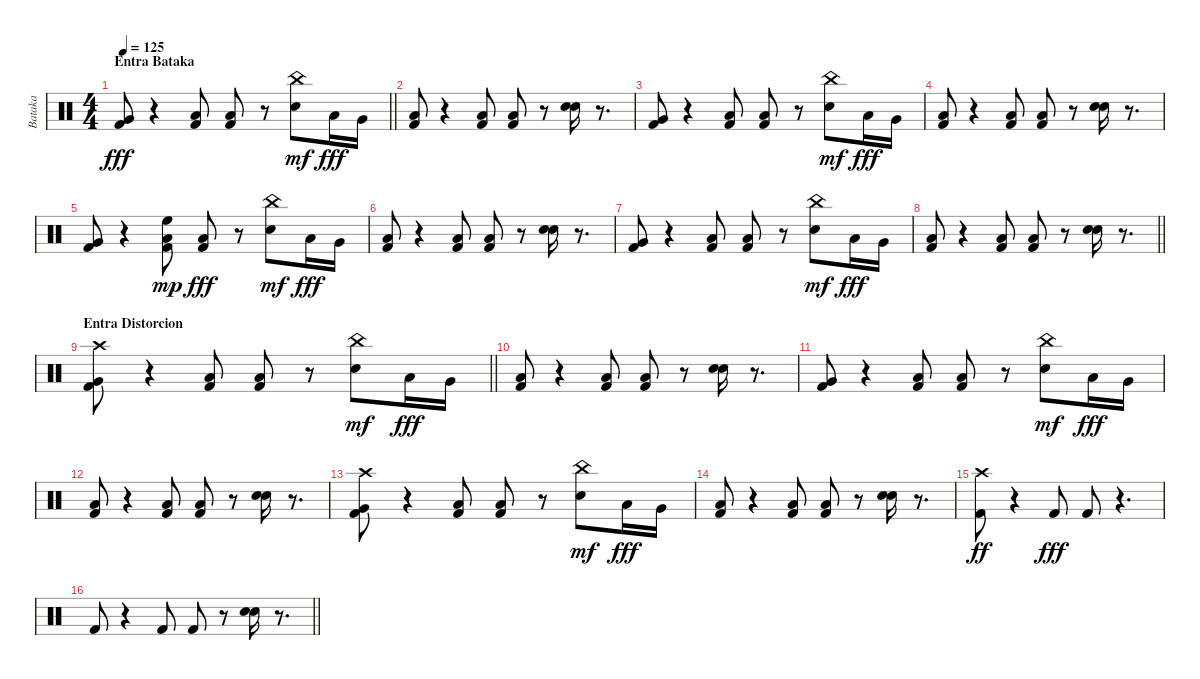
\track ("Bataka" "Bataka") {instrument percussion}
\staff {score}
\articulation defaults
\ts (4 4)
\section ("" "Entra Bataka")
\tempo 125
\clef neutral
\barLineRight lightlight
\ks c
("Kick (hit) 2" "Very Low Tom (hit)").8{dy fff} r.4 ("Kick (hit) 2" "Low Floor Tom (hit)").8 ("Kick (hit) 2" "Low Floor Tom (hit)").8 r.8 ("Snare (hit) 2" "China (hit)").8{dy mf} "Low Tom (hit)".16{dy fff} "Very Low Tom (hit)".16 |
("Kick (hit) 2" "Low Floor Tom (hit)").8 r.4 ("Kick (hit) 2" "Low Floor Tom (hit)").8 ("Kick (hit) 2" "Low Floor Tom (hit)").8 r.8 ("Snare (hit) 2" "Snare (hit) 2").16 r.8{d} |
("Kick (hit) 2" "Very Low Tom (hit)").8 r.4 ("Kick (hit) 2" "Low Floor Tom (hit)").8 ("Kick (hit) 2" "Low Floor Tom (hit)").8 r.8 ("Snare (hit) 2" "China (hit)").8{dy mf} "Low Tom (hit)".16{dy fff} "Very Low Tom (hit)".16 |
("Kick (hit) 2" "Low Floor Tom (hit)").8 r.4 ("Kick (hit) 2" "Low Floor Tom (hit)").8 ("Kick (hit) 2" "Low Floor Tom (hit)").8 r.8 ("Snare (hit) 2" "Snare (hit) 2").16 r.8{d} |
("Kick (hit) 2" "Very Low Tom (hit)").8 r.4 ("Kick (hit) 2" "Low Floor Tom (hit)" "High Floor Tom (hit)").8{dy mp} ("Kick (hit) 2" "Low Floor Tom (hit)").8{dy fff} r.8 ("Snare (hit) 2" "China (hit)").8{dy mf} "Low Tom (hit)".16{dy fff} "Very Low Tom (hit)".16 |
("Kick (hit) 2" "Low Floor Tom (hit)").8 r.4 ("Kick (hit) 2" "Low Floor Tom (hit)").8 ("Kick (hit) 2" "Low Floor Tom (hit)").8 r.8 ("Snare (hit) 2" "Snare (hit) 2").16 r.8{d} |
("Kick (hit) 2" "Very Low Tom (hit)").8 r.4 ("Kick (hit) 2" "Low Floor Tom (hit)").8 ("Kick (hit) 2" "Low Floor Tom (hit)").8 r.8 ("Snare (hit) 2" "China (hit)").8{dy mf} "Low Tom (hit)".16{dy fff} "Very Low Tom (hit)".16 |
\barLineRight lightlight
("Kick (hit) 2" "Low Floor Tom (hit)").8 r.4 ("Kick (hit) 2" "Low Floor Tom (hit)").8 ("Kick (hit) 2" "Low Floor Tom (hit)").8 r.8 ("Snare (hit) 2" "Snare (hit) 2").16 r.8{d} |
\section ("" "Entra Distorcion")
\barLineRight lightlight
("Kick (hit) 2" "Very Low Tom (hit)" "Crash high (hit)").8 r.4 ("Kick (hit) 2" "Low Floor Tom (hit)").8 ("Kick (hit) 2" "Low Floor Tom (hit)").8 r.8 ("Snare (hit) 2" "China (hit)").8{dy mf} "Low Tom (hit)".16{dy fff} "Very Low Tom (hit)".16 |
("Kick (hit) 2" "Low Floor Tom (hit)").8 r.4 ("Kick (hit) 2" "Low Floor Tom (hit)").8 ("Kick (hit) 2" "Low Floor Tom (hit)").8 r.8 ("Snare (hit) 2" "Snare (hit) 2").16 r.8{d} |
("Kick (hit) 2" "Very Low Tom (hit)").8 r.4 ("Kick (hit) 2" "Low Floor Tom (hit)").8 ("Kick (hit) 2" "Low Floor Tom (hit)").8 r.8 ("Snare (hit) 2" "China (hit)").8{dy mf} "Low Tom (hit)".16{dy fff} "Very Low Tom (hit)".16 |
("Kick (hit) 2" "Low Floor Tom (hit)").8 r.4 ("Kick (hit) 2" "Low Floor Tom (hit)").8 ("Kick (hit) 2" "Low Floor Tom (hit)").8 r.8 ("Snare (hit) 2" "Snare (hit) 2").16 r.8{d} |
("Kick (hit) 2" "Very Low Tom (hit)" "Crash high (hit)").8 r.4 ("Kick (hit) 2" "Low Floor Tom (hit)").8 ("Kick (hit) 2" "Low Floor Tom (hit)").8 r.8 ("Snare (hit) 2" "China (hit)").8{dy mf} "Low Tom (hit)".16{dy fff} "Very Low Tom (hit)".16 |
("Kick (hit) 2" "Low Floor Tom (hit)").8 r.4 ("Kick (hit) 2" "Low Floor Tom (hit)").8 ("Kick (hit) 2" "Low Floor Tom (hit)").8 r.8 ("Snare (hit) 2" "Snare (hit) 2").16 r.8{d} |
("Kick (hit) 2" "Crash high (hit)").8{dy ff} r.4 "Kick (hit) 2".8{dy fff} "Kick (hit) 2".8 r.4{d} |
\barLineRight lightlight "Kick (hit) 2".8
r.4 "Kick (hit) 2".8 "Kick (hit) 2".8 r.8 ("Snare (hit) 2" "Snare (hit) 2").16 r.8{d}
